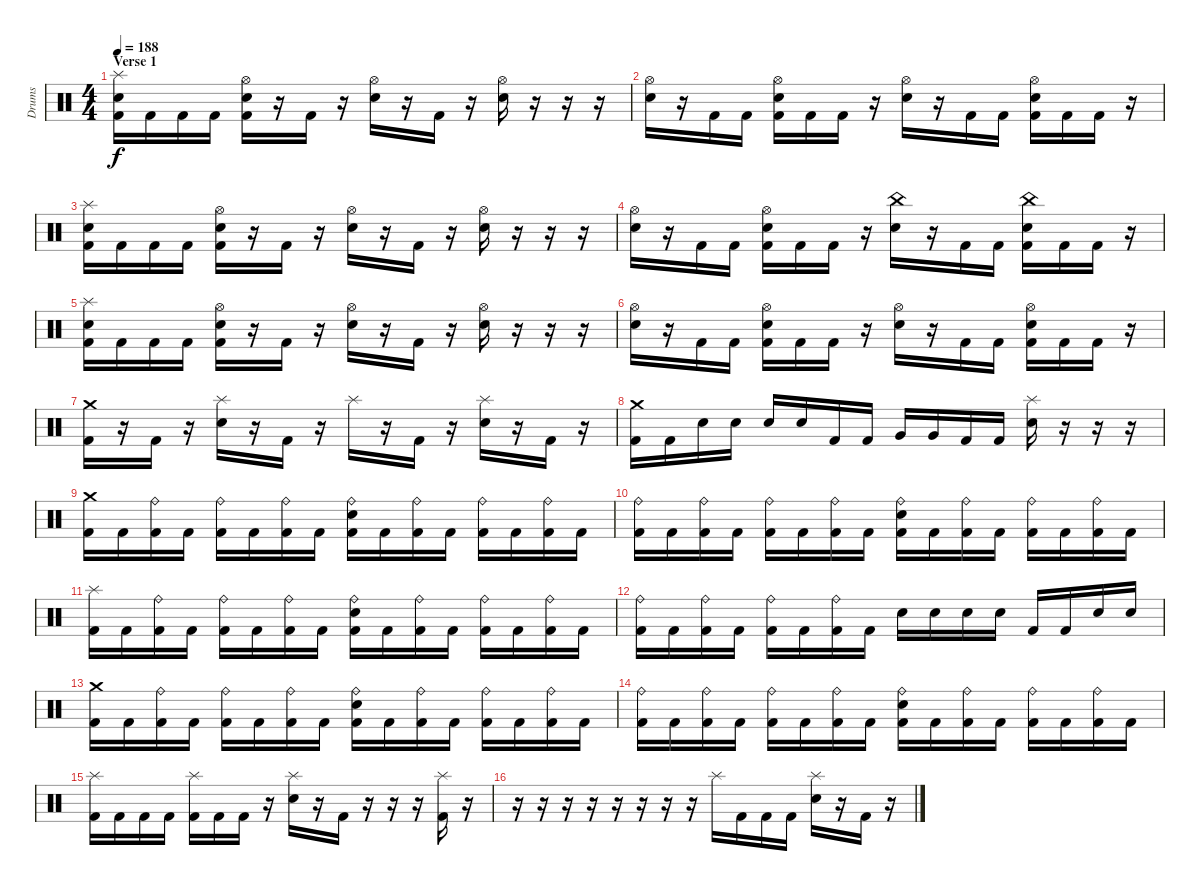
\track ("Drums" "Drums") {instrument percussion}
\staff {score}
\articulation defaults
\ts (4 4)
\section ("" "Verse 1")
\tempo 188
\clef neutral
\ks c
("Splash (hit)" "Snare (hit) 2" "Kick (hit) 2").16{dy f} "Kick (hit) 2".16 "Kick (hit) 2".16 "Kick (hit) 2".16 ("Hi-Hat (open)" "Snare (hit) 2" "Kick (hit) 2").16 r.16 "Kick (hit) 2".16 r.16 ("Hi-Hat (open)" "Snare (hit) 2").16 r.16 "Kick (hit) 2".16 r.16 ("Hi-Hat (open)" "Snare (hit) 2").16 r.16 r.16 r.16 |
("Hi-Hat (open)" "Snare (hit) 2").16 r.16 "Kick (hit) 2".16 "Kick (hit) 2".16 ("Hi-Hat (open)" "Snare (hit) 2" "Kick (hit) 2").16 "Kick (hit) 2".16 "Kick (hit) 2".16 r.16 ("Hi-Hat (open)" "Snare (hit) 2").16 r.16 "Kick (hit) 2".16 "Kick (hit) 2".16 ("Hi-Hat (open)" "Snare (hit) 2" "Kick (hit) 2").16 "Kick (hit) 2".16 "Kick (hit) 2".16 r.16 |
("Splash (hit)" "Snare (hit) 2" "Kick (hit) 2").16 "Kick (hit) 2".16 "Kick (hit) 2".16 "Kick (hit) 2".16 ("Hi-Hat (open)" "Snare (hit) 2" "Kick (hit) 2").16 r.16 "Kick (hit) 2".16 r.16 ("Hi-Hat (open)" "Snare (hit) 2").16 r.16 "Kick (hit) 2".16 r.16 ("Hi-Hat (open)" "Snare (hit) 2").16 r.16 r.16 r.16 |
("Hi-Hat (open)" "Snare (hit) 2").16 r.16 "Kick (hit) 2".16 "Kick (hit) 2".16 ("Hi-Hat (open)" "Snare (hit) 2" "Kick (hit) 2").16 "Kick (hit) 2".16 "Kick (hit) 2".16 r.16 ("China (hit)" "Snare (hit) 2").16 r.16 "Kick (hit) 2".16 "Kick (hit) 2".16 ("China (hit)" "Snare (hit) 2" "Kick (hit) 2").16 "Kick (hit) 2".16 "Kick (hit) 2".16 r.16 |
("Splash (hit)" "Snare (hit) 2" "Kick (hit) 2").16 "Kick (hit) 2".16 "Kick (hit) 2".16 "Kick (hit) 2".16 ("Hi-Hat (open)" "Snare (hit) 2" "Kick (hit) 2").16 r.16 "Kick (hit) 2".16 r.16 ("Hi-Hat (open)" "Snare (hit) 2").16 r.16 "Kick (hit) 2".16 r.16 ("Hi-Hat (open)" "Snare (hit) 2").16 r.16 r.16 r.16 |
("Hi-Hat (open)" "Snare (hit) 2").16 r.16 "Kick (hit) 2".16 "Kick (hit) 2".16 ("Hi-Hat (open)" "Snare (hit) 2" "Kick (hit) 2").16 "Kick (hit) 2".16 "Kick (hit) 2".16 r.16 ("Hi-Hat (open)" "Snare (hit) 2").16 r.16 "Kick (hit) 2".16 "Kick (hit) 2".16 ("Hi-Hat (open)" "Snare (hit) 2" "Kick (hit) 2").16 "Kick (hit) 2".16 "Kick (hit) 2".16 r.16 |
("Crash medium (hit)" "Kick (hit) 2").16 r.16 "Kick (hit) 2".16 r.16 ("Splash (hit)" "Snare (hit) 2").16 r.16 "Kick (hit) 2".16 r.16 "Splash (hit)".16 r.16 "Kick (hit) 2".16 r.16 ("Splash (hit)" "Snare (hit) 2").16 r.16 "Kick (hit) 2".16 r.16 |
("Crash medium (hit)" "Kick (hit) 2").16 "Kick (hit) 2".16 "Snare (hit) 2".16 "Snare (hit) 2".16 "Snare (hit) 2".16 "Snare (hit) 2".16 "Kick (hit) 2".16 "Kick (hit) 2".16 "Very Low Tom (hit)".16 "Very Low Tom (hit)".16 "Kick (hit) 2".16 "Kick (hit) 2".16 ("Splash (hit)" "Snare (hit) 2").16 r.16 r.16 r.16 |
("Crash medium (hit)" "Kick (hit) 2").16 "Kick (hit) 2".16 ("Ride (bell)" "Kick (hit) 2").16 "Kick (hit) 2".16 ("Ride (bell)" "Kick (hit) 2").16 "Kick (hit) 2".16 ("Ride (bell)" "Kick (hit) 2").16 "Kick (hit) 2".16 ("Ride (bell)" "Snare (hit) 2" "Kick (hit) 2").16 "Kick (hit) 2".16 ("Ride (bell)" "Kick (hit) 2").16 "Kick (hit) 2".16 ("Ride (bell)" "Kick (hit) 2").16 "Kick (hit) 2".16 ("Ride (bell)" "Kick (hit) 2").16 "Kick (hit) 2".16 |
("Ride (bell)" "Kick (hit) 2").16 "Kick (hit) 2".16 ("Ride (bell)" "Kick (hit) 2").16 "Kick (hit) 2".16 ("Ride (bell)" "Kick (hit) 2").16 "Kick (hit) 2".16 ("Ride (bell)" "Kick (hit) 2").16 "Kick (hit) 2".16 ("Ride (bell)" "Snare (hit) 2" "Kick (hit) 2").16 "Kick (hit) 2".16 ("Ride (bell)" "Kick (hit) 2").16 "Kick (hit) 2".16 ("Ride (bell)" "Kick (hit) 2").16 "Kick (hit) 2".16 ("Ride (bell)" "Kick (hit) 2").16 "Kick (hit) 2".16 |
("Splash (hit)" "Kick (hit) 2").16 "Kick (hit) 2".16 ("Ride (bell)" "Kick (hit) 2").16 "Kick (hit) 2".16 ("Ride (bell)" "Kick (hit) 2").16 "Kick (hit) 2".16 ("Ride (bell)" "Kick (hit) 2").16 "Kick (hit) 2".16 ("Ride (bell)" "Snare (hit) 2" "Kick (hit) 2").16 "Kick (hit) 2".16 ("Ride (bell)" "Kick (hit) 2").16 "Kick (hit) 2".16 ("Ride (bell)" "Kick (hit) 2").16 "Kick (hit) 2".16 ("Ride (bell)" "Kick (hit) 2").16 "Kick (hit) 2".16 |
("Ride (bell)" "Kick (hit) 2").16 "Kick (hit) 2".16 ("Ride (bell)" "Kick (hit) 2").16 "Kick (hit) 2".16 ("Ride (bell)" "Kick (hit) 2").16 "Kick (hit) 2".16 ("Ride (bell)" "Kick (hit) 2").16 "Kick (hit) 2".16 "Snare (hit) 2".16 "Snare (hit) 2".16 "Snare (hit) 2".16 "Snare (hit) 2".16 "Kick (hit) 2".16 "Kick (hit) 2".16 "Snare (hit) 2".16 "Snare (hit) 2".16 |
("Crash medium (hit)" "Kick (hit) 2").16 "Kick (hit) 2".16 ("Ride (bell)" "Kick (hit) 2").16 "Kick (hit) 2".16 ("Ride (bell)" "Kick (hit) 2").16 "Kick (hit) 2".16 ("Ride (bell)" "Kick (hit) 2").16 "Kick (hit) 2".16 ("Ride (bell)" "Snare (hit) 2" "Kick (hit) 2").16 "Kick (hit) 2".16 ("Ride (bell)" "Kick (hit) 2").16 "Kick (hit) 2".16 ("Ride (bell)" "Kick (hit) 2").16 "Kick (hit) 2".16 ("Ride (bell)" "Kick (hit) 2").16 "Kick (hit) 2".16 |
("Ride (bell)" "Kick (hit) 2").16 "Kick (hit) 2".16 ("Ride (bell)" "Kick (hit) 2").16 "Kick (hit) 2".16 ("Ride (bell)" "Kick (hit) 2").16 "Kick (hit) 2".16 ("Ride (bell)" "Kick (hit) 2").16 "Kick (hit) 2".16 ("Ride (bell)" "Snare (hit) 2" "Kick (hit) 2").16 "Kick (hit) 2".16 ("Ride (bell)" "Kick (hit) 2").16 "Kick (hit) 2".16 ("Ride (bell)" "Kick (hit) 2").16 "Kick (hit) 2".16 ("Ride (bell)" "Kick (hit) 2").16 "Kick (hit) 2".16 |
("Splash (hit)" "Kick (hit) 2").16 "Kick (hit) 2".16 "Kick (hit) 2".16 "Kick (hit) 2".16 ("Splash (hit)" "Kick (hit) 2").16 "Kick (hit) 2".16 "Kick (hit) 2".16 r.16 ("Splash (hit)" "Snare (hit) 2").16 r.16 "Kick (hit) 2".16 r.16 r.16 r.16 ("Splash (hit)" "Kick (hit) 2").16 r.16 |
r.16 r.16 r.16 r.16 r.16 r.16 r.16 r.16 "Splash (hit)".16 "Kick (hit) 2".16 "Kick (hit) 2".16 "Kick (hit) 2".16 ("Splash (hit)" "Snare (hit) 2").16 r.16 "Kick (hit) 2".16 r.16
